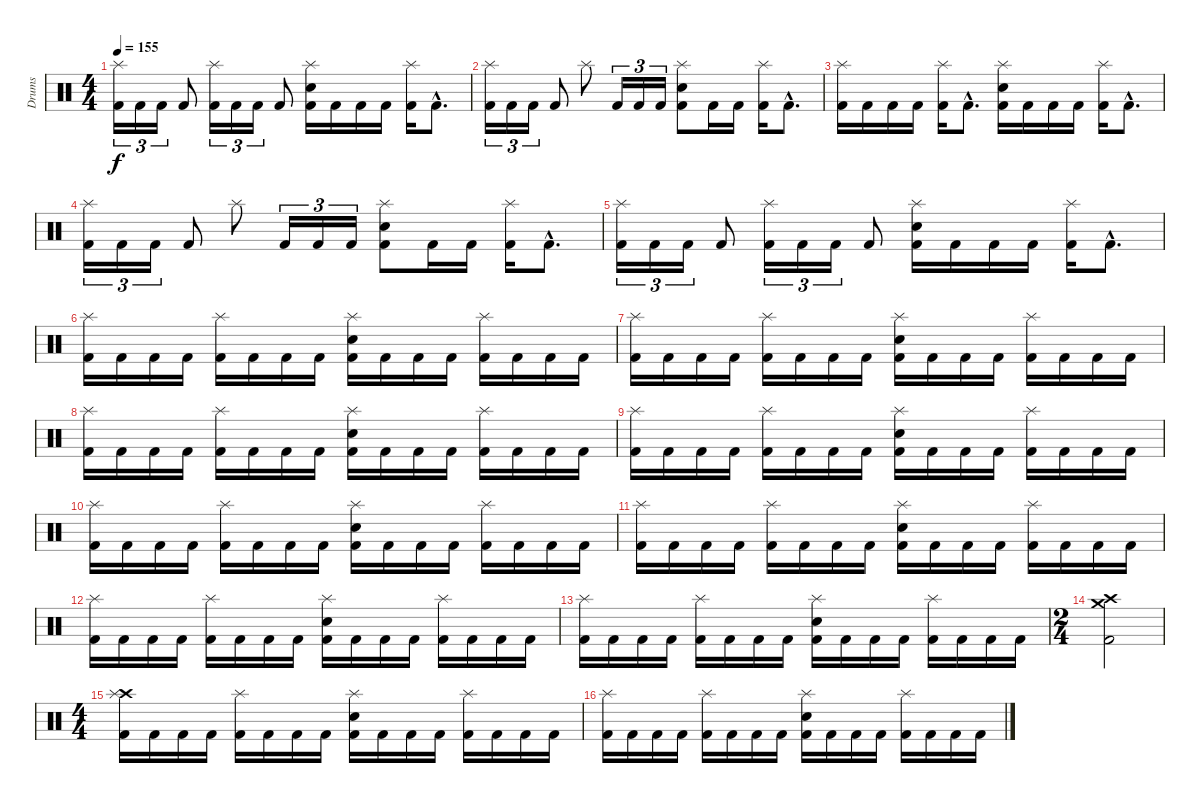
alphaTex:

\track ("Drums" "Drums") {instrument percussion}
\staff {score}
\articulation defaults
\ts (4 4)
\tempo 155
\clef neutral
\ks c
("Splash (hit)" "Kick (hit) 2").16{tu (3 2) dy f} "Kick (hit) 2".16{tu (3 2)} "Kick (hit) 2".16{tu (3 2)} "Kick (hit) 2".8 ("Splash (hit)" "Kick (hit) 2").16{tu (3 2)} "Kick (hit) 2".16{tu (3 2)} "Kick (hit) 2".16{tu (3 2)} "Kick (hit) 2".8 ("Splash (hit)" "Electric Snare (hit)" "Kick (hit) 2").16 "Kick (hit) 2".16 "Kick (hit) 2".16 "Kick (hit) 2".16 ("Splash (hit)" "Kick (hit) 2").16 "Kick (hit) 2"{hac}.8{d} |
("Splash (hit)" "Kick (hit) 2").16{tu (3 2)} "Kick (hit) 2".16{tu (3 2)} "Kick (hit) 2".16{tu (3 2)} "Kick (hit) 2".8 "Splash (hit)".8 "Kick (hit) 2".16{tu (3 2)} "Kick (hit) 2".16{tu (3 2)} "Kick (hit) 2".16{tu (3 2)} ("Splash (hit)" "Electric Snare (hit)" "Kick (hit) 2").8 "Kick (hit) 2".16 "Kick (hit) 2".16 ("Splash (hit)" "Kick (hit) 2").16 "Kick (hit) 2"{hac}.8{d} |
("Splash (hit)" "Kick (hit) 2").16 "Kick (hit) 2".16 "Kick (hit) 2".16 "Kick (hit) 2".16 ("Splash (hit)" "Kick (hit) 2").16 "Kick (hit) 2"{hac}.8{d} ("Splash (hit)" "Electric Snare (hit)" "Kick (hit) 2").16 "Kick (hit) 2".16 "Kick (hit) 2".16 "Kick (hit) 2".16 ("Splash (hit)" "Kick (hit) 2").16 "Kick (hit) 2"{hac}.8{d} |
("Splash (hit)" "Kick (hit) 2").16{tu (3 2)} "Kick (hit) 2".16{tu (3 2)} "Kick (hit) 2".16{tu (3 2)} "Kick (hit) 2".8 "Splash (hit)".8 "Kick (hit) 2".16{tu (3 2)} "Kick (hit) 2".16{tu (3 2)} "Kick (hit) 2".16{tu (3 2)} ("Splash (hit)" "Electric Snare (hit)" "Kick (hit) 2").8 "Kick (hit) 2".16 "Kick (hit) 2".16 ("Splash (hit)" "Kick (hit) 2").16 "Kick (hit) 2"{hac}.8{d} |
("Splash (hit)" "Kick (hit) 2").16{tu (3 2)} "Kick (hit) 2".16{tu (3 2)} "Kick (hit) 2".16{tu (3 2)} "Kick (hit) 2".8 ("Splash (hit)" "Kick (hit) 2").16{tu (3 2)} "Kick (hit) 2".16{tu (3 2)} "Kick (hit) 2".16{tu (3 2)} "Kick (hit) 2".8 ("Splash (hit)" "Electric Snare (hit)" "Kick (hit) 2").16 "Kick (hit) 2".16 "Kick (hit) 2".16 "Kick (hit) 2".16 ("Splash (hit)" "Kick (hit) 2").16 "Kick (hit) 2"{hac}.8{d} |
("Splash (hit)" "Kick (hit) 2").16 "Kick (hit) 2".16 "Kick (hit) 2".16 "Kick (hit) 2".16 ("Splash (hit)" "Kick (hit) 2").16 "Kick (hit) 2".16 "Kick (hit) 2".16 "Kick (hit) 2".16 ("Splash (hit)" "Electric Snare (hit)" "Kick (hit) 2").16 "Kick (hit) 2".16 "Kick (hit) 2".16 "Kick (hit) 2".16 ("Splash (hit)" "Kick (hit) 2").16 "Kick (hit) 2".16 "Kick (hit) 2".16 "Kick (hit) 2".16 |
("Splash (hit)" "Kick (hit) 2").16 "Kick (hit) 2".16 "Kick (hit) 2".16 "Kick (hit) 2".16 ("Splash (hit)" "Kick (hit) 2").16 "Kick (hit) 2".16 "Kick (hit) 2".16 "Kick (hit) 2".16 ("Splash (hit)" "Electric Snare (hit)" "Kick (hit) 2").16 "Kick (hit) 2".16 "Kick (hit) 2".16 "Kick (hit) 2".16 ("Splash (hit)" "Kick (hit) 2").16 "Kick (hit) 2".16 "Kick (hit) 2".16 "Kick (hit) 2".16 |
("Splash (hit)" "Kick (hit) 2").16 "Kick (hit) 2".16 "Kick (hit) 2".16 "Kick (hit) 2".16 ("Splash (hit)" "Kick (hit) 2").16 "Kick (hit) 2".16 "Kick (hit) 2".16 "Kick (hit) 2".16 ("Splash (hit)" "Electric Snare (hit)" "Kick (hit) 2").16 "Kick (hit) 2".16 "Kick (hit) 2".16 "Kick (hit) 2".16 ("Splash (hit)" "Kick (hit) 2").16 "Kick (hit) 2".16 "Kick (hit) 2".16 "Kick (hit) 2".16 |
("Splash (hit)" "Kick (hit) 2").16 "Kick (hit) 2".16 "Kick (hit) 2".16 "Kick (hit) 2".16 ("Splash (hit)" "Kick (hit) 2").16 "Kick (hit) 2".16 "Kick (hit) 2".16 "Kick (hit) 2".16 ("Splash (hit)" "Electric Snare (hit)" "Kick (hit) 2").16 "Kick (hit) 2".16 "Kick (hit) 2".16 "Kick (hit) 2".16 ("Splash (hit)" "Kick (hit) 2").16 "Kick (hit) 2".16 "Kick (hit) 2".16 "Kick (hit) 2".16 |
("Splash (hit)" "Kick (hit) 2").16 "Kick (hit) 2".16 "Kick (hit) 2".16 "Kick (hit) 2".16 ("Splash (hit)" "Kick (hit) 2").16 "Kick (hit) 2".16 "Kick (hit) 2".16 "Kick (hit) 2".16 ("Splash (hit)" "Electric Snare (hit)" "Kick (hit) 2").16 "Kick (hit) 2".16 "Kick (hit) 2".16 "Kick (hit) 2".16 ("Splash (hit)" "Kick (hit) 2").16 "Kick (hit) 2".16 "Kick (hit) 2".16 "Kick (hit) 2".16 |
("Splash (hit)" "Kick (hit) 2").16 "Kick (hit) 2".16 "Kick (hit) 2".16 "Kick (hit) 2".16 ("Splash (hit)" "Kick (hit) 2").16 "Kick (hit) 2".16 "Kick (hit) 2".16 "Kick (hit) 2".16 ("Splash (hit)" "Electric Snare (hit)" "Kick (hit) 2").16 "Kick (hit) 2".16 "Kick (hit) 2".16 "Kick (hit) 2".16 ("Splash (hit)" "Kick (hit) 2").16 "Kick (hit) 2".16 "Kick (hit) 2".16 "Kick (hit) 2".16 |
("Splash (hit)" "Kick (hit) 2").16 "Kick (hit) 2".16 "Kick (hit) 2".16 "Kick (hit) 2".16 ("Splash (hit)" "Kick (hit) 2").16 "Kick (hit) 2".16 "Kick (hit) 2".16 "Kick (hit) 2".16 ("Splash (hit)" "Electric Snare (hit)" "Kick (hit) 2").16 "Kick (hit) 2".16 "Kick (hit) 2".16 "Kick (hit) 2".16 ("Splash (hit)" "Kick (hit) 2").16 "Kick (hit) 2".16 "Kick (hit) 2".16 "Kick (hit) 2".16 |
("Splash (hit)" "Kick (hit) 2").16 "Kick (hit) 2".16 "Kick (hit) 2".16 "Kick (hit) 2".16 ("Splash (hit)" "Kick (hit) 2").16 "Kick (hit) 2".16 "Kick (hit) 2".16 "Kick (hit) 2".16 ("Splash (hit)" "Electric Snare (hit)" "Kick (hit) 2").16 "Kick (hit) 2".16 "Kick (hit) 2".16 "Kick (hit) 2".16 ("Splash (hit)" "Kick (hit) 2").16 "Kick (hit) 2".16 "Kick (hit) 2".16 "Kick (hit) 2".16 |
\ts (2 4)
("Crash high (hit)" "Crash medium (hit)" "Kick (hit) 2").2 |
\ts (4 4)
("Crash high (hit)" "Splash (hit)" "Kick (hit) 2").16 "Kick (hit) 2".16 "Kick (hit) 2".16 "Kick (hit) 2".16 ("Splash (hit)" "Kick (hit) 2").16 "Kick (hit) 2".16 "Kick (hit) 2".16 "Kick (hit) 2".16 ("Splash (hit)" "Electric Snare (hit)" "Kick (hit) 2").16 "Kick (hit) 2".16 "Kick (hit) 2".16 "Kick (hit) 2".16 ("Splash (hit)" "Kick (hit) 2").16 "Kick (hit) 2".16 "Kick (hit) 2".16 "Kick (hit) 2".16 |
("Splash (hit)" "Kick (hit) 2").16 "Kick (hit) 2".16 "Kick (hit) 2".16 "Kick (hit) 2".16 ("Splash (hit)" "Kick (hit) 2").16 "Kick (hit) 2".16 "Kick (hit) 2".16 "Kick (hit) 2".16 ("Splash (hit)" "Electric Snare (hit)" "Kick (hit) 2").16 "Kick (hit) 2".16 "Kick (hit) 2".16 "Kick (hit) 2".16 ("Splash (hit)" "Kick (hit) 2").16 "Kick (hit) 2".16 "Kick (hit) 2".16 "Kick (hit) 2".16
